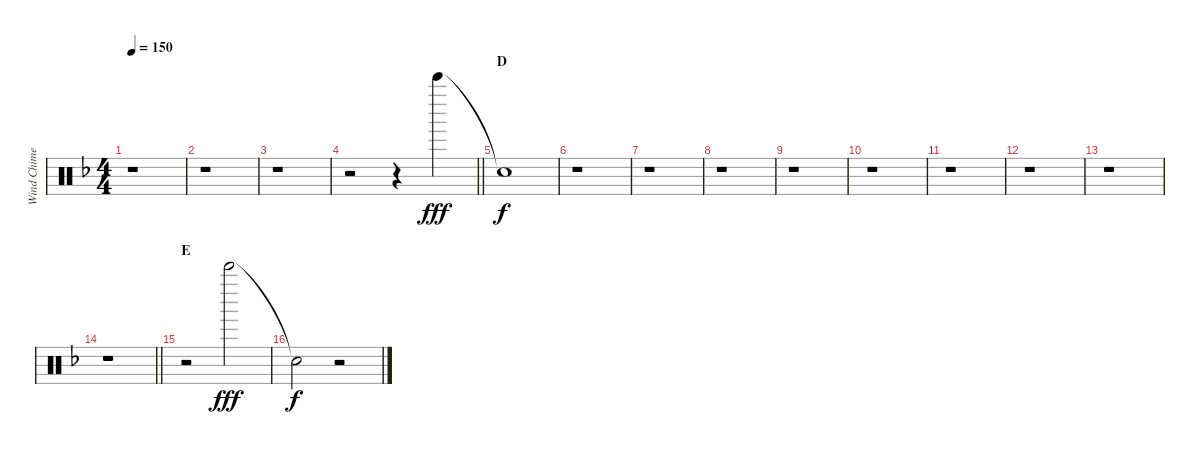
\track ("Wind Chime" "Wind Chime") {instrument percussion}
\staff {score}
\articulation defaults
\ts (4 4)
\tempo 150
\clef neutral
\ks f
r.1{dy f} |
r.1 |
r.1 |
\barLineRight lightlight
r.2 r.4 "Bell Tree (hit)".4{dy fff} |
\section ("" "D")
"Snare (hit)"{t}.1{dy f} |
r.1 |
r.1 |
r.1 |
r.1 |
r.1 |
r.1 |
r.1 |
r.1 |
\barLineRight lightlight
r.1 |
\section ("" "E")
r.2 "Bell Tree (hit)".2{dy fff} |
"Snare (hit)"{t}.2{dy f} r.2
